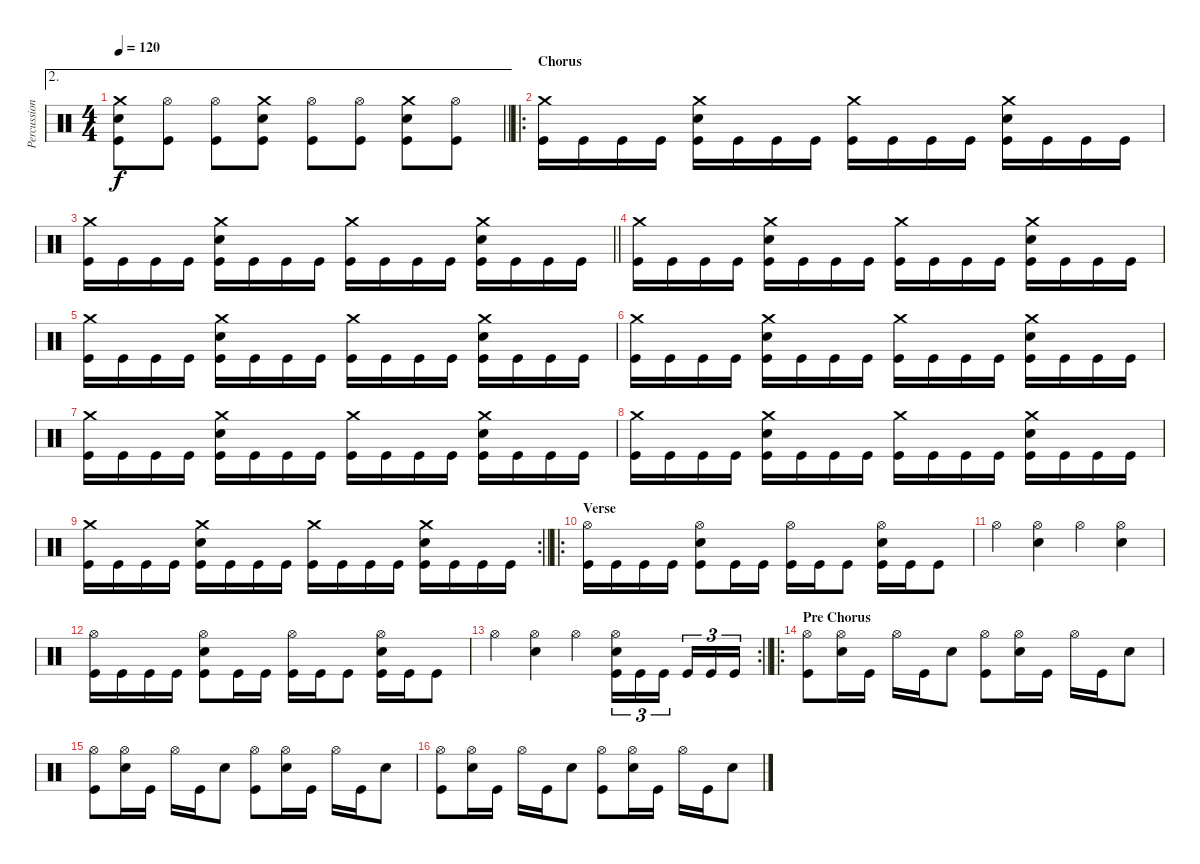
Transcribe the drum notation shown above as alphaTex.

\track ("Percussion" "Percussion") {instrument percussion}
\staff {score}
\articulation defaults
\ae 2
\ts (4 4)
\tempo 120
\clef neutral
\barLineRight lightlight
\ks c
("Crash medium (hit)" "Snare (hit) 2" "Kick (hit)").8{dy f} ("Hi-Hat (open)" "Kick (hit)").8 ("Hi-Hat (open)" "Kick (hit)").8 ("Crash medium (hit)" "Snare (hit) 2" "Kick (hit)").8 ("Hi-Hat (open)" "Kick (hit)").8 ("Hi-Hat (open)" "Kick (hit)").8 ("Crash medium (hit)" "Snare (hit) 2" "Kick (hit)").8 ("Hi-Hat (open)" "Kick (hit)").8 |
\ro
\section ("" "Chorus")
("Crash medium (hit)" "Kick (hit)").16 "Kick (hit)".16 "Kick (hit)".16 "Kick (hit)".16 ("Crash medium (hit)" "Snare (hit) 2" "Kick (hit)").16 "Kick (hit)".16 "Kick (hit)".16 "Kick (hit)".16 ("Crash medium (hit)" "Kick (hit)").16 "Kick (hit)".16 "Kick (hit)".16 "Kick (hit)".16 ("Crash medium (hit)" "Snare (hit) 2" "Kick (hit)").16 "Kick (hit)".16 "Kick (hit)".16 "Kick (hit)".16 |
\barLineRight lightlight
("Crash medium (hit)" "Kick (hit)").16 "Kick (hit)".16 "Kick (hit)".16 "Kick (hit)".16 ("Crash medium (hit)" "Snare (hit) 2" "Kick (hit)").16 "Kick (hit)".16 "Kick (hit)".16 "Kick (hit)".16 ("Crash medium (hit)" "Kick (hit)").16 "Kick (hit)".16 "Kick (hit)".16 "Kick (hit)".16 ("Crash medium (hit)" "Snare (hit) 2" "Kick (hit)").16 "Kick (hit)".16 "Kick (hit)".16 "Kick (hit)".16 |
("Crash medium (hit)" "Kick (hit)").16 "Kick (hit)".16 "Kick (hit)".16 "Kick (hit)".16 ("Crash medium (hit)" "Snare (hit) 2" "Kick (hit)").16 "Kick (hit)".16 "Kick (hit)".16 "Kick (hit)".16 ("Crash medium (hit)" "Kick (hit)").16 "Kick (hit)".16 "Kick (hit)".16 "Kick (hit)".16 ("Crash medium (hit)" "Snare (hit) 2" "Kick (hit)").16 "Kick (hit)".16 "Kick (hit)".16 "Kick (hit)".16 |
("Crash medium (hit)" "Kick (hit)").16 "Kick (hit)".16 "Kick (hit)".16 "Kick (hit)".16 ("Crash medium (hit)" "Snare (hit) 2" "Kick (hit)").16 "Kick (hit)".16 "Kick (hit)".16 "Kick (hit)".16 ("Crash medium (hit)" "Kick (hit)").16 "Kick (hit)".16 "Kick (hit)".16 "Kick (hit)".16 ("Crash medium (hit)" "Snare (hit) 2" "Kick (hit)").16 "Kick (hit)".16 "Kick (hit)".16 "Kick (hit)".16 |
("Crash medium (hit)" "Kick (hit)").16 "Kick (hit)".16 "Kick (hit)".16 "Kick (hit)".16 ("Crash medium (hit)" "Snare (hit) 2" "Kick (hit)").16 "Kick (hit)".16 "Kick (hit)".16 "Kick (hit)".16 ("Crash medium (hit)" "Kick (hit)").16 "Kick (hit)".16 "Kick (hit)".16 "Kick (hit)".16 ("Crash medium (hit)" "Snare (hit) 2" "Kick (hit)").16 "Kick (hit)".16 "Kick (hit)".16 "Kick (hit)".16 |
("Crash medium (hit)" "Kick (hit)").16 "Kick (hit)".16 "Kick (hit)".16 "Kick (hit)".16 ("Crash medium (hit)" "Snare (hit) 2" "Kick (hit)").16 "Kick (hit)".16 "Kick (hit)".16 "Kick (hit)".16 ("Crash medium (hit)" "Kick (hit)").16 "Kick (hit)".16 "Kick (hit)".16 "Kick (hit)".16 ("Crash medium (hit)" "Snare (hit) 2" "Kick (hit)").16 "Kick (hit)".16 "Kick (hit)".16 "Kick (hit)".16 |
("Crash medium (hit)" "Kick (hit)").16 "Kick (hit)".16 "Kick (hit)".16 "Kick (hit)".16 ("Crash medium (hit)" "Snare (hit) 2" "Kick (hit)").16 "Kick (hit)".16 "Kick (hit)".16 "Kick (hit)".16 ("Crash medium (hit)" "Kick (hit)").16 "Kick (hit)".16 "Kick (hit)".16 "Kick (hit)".16 ("Crash medium (hit)" "Snare (hit) 2" "Kick (hit)").16 "Kick (hit)".16 "Kick (hit)".16 "Kick (hit)".16 |
\rc 2
\barLineRight lightlight
("Crash medium (hit)" "Kick (hit)").16 "Kick (hit)".16 "Kick (hit)".16 "Kick (hit)".16 ("Crash medium (hit)" "Snare (hit) 2" "Kick (hit)").16 "Kick (hit)".16 "Kick (hit)".16 "Kick (hit)".16 ("Crash medium (hit)" "Kick (hit)").16 "Kick (hit)".16 "Kick (hit)".16 "Kick (hit)".16 ("Crash medium (hit)" "Snare (hit) 2" "Kick (hit)").16 "Kick (hit)".16 "Kick (hit)".16 "Kick (hit)".16 |
\ro
\section ("" "Verse")
("Hi-Hat (open)" "Kick (hit)").16 "Kick (hit)".16 "Kick (hit)".16 "Kick (hit)".16 ("Hi-Hat (open)" "Snare (hit) 2" "Kick (hit)").8 "Kick (hit)".16 "Kick (hit)".16 ("Hi-Hat (open)" "Kick (hit)").16 "Kick (hit)".16 "Kick (hit)".8 ("Hi-Hat (open)" "Snare (hit) 2" "Kick (hit)").16 "Kick (hit)".16 "Kick (hit)".8 |
"Hi-Hat (open)".4 ("Hi-Hat (open)" "Snare (hit) 2").4 "Hi-Hat (open)".4 ("Hi-Hat (open)" "Snare (hit) 2").4 |
("Hi-Hat (open)" "Kick (hit)").16 "Kick (hit)".16 "Kick (hit)".16 "Kick (hit)".16 ("Hi-Hat (open)" "Snare (hit) 2" "Kick (hit)").8 "Kick (hit)".16 "Kick (hit)".16 ("Hi-Hat (open)" "Kick (hit)").16 "Kick (hit)".16 "Kick (hit)".8 ("Hi-Hat (open)" "Snare (hit) 2" "Kick (hit)").16 "Kick (hit)".16 "Kick (hit)".8 |
\rc 2
\barLineRight lightlight "Hi-Hat (open)".4
("Hi-Hat (open)" "Snare (hit) 2").4 "Hi-Hat (open)".4 ("Hi-Hat (open)" "Snare (hit) 2" "Kick (hit)").16{tu (3 2)} "Kick (hit)".16{tu (3 2)} "Kick (hit)".16{tu (3 2) beam splitsecondary} "Kick (hit)".16{tu (3 2)} "Kick (hit)".16{tu (3 2)} "Kick (hit)".16{tu (3 2)} |
\ro
\section ("" "Pre Chorus")
("Hi-Hat (open)" "Kick (hit)").8 ("Hi-Hat (open)" "Snare (hit) 2").16 "Kick (hit)".16 "Hi-Hat (open)".16 "Kick (hit)".16 "Snare (hit) 2".8 ("Hi-Hat (open)" "Kick (hit)").8 ("Hi-Hat (open)" "Snare (hit) 2").16 "Kick (hit)".16 "Hi-Hat (open)".16 "Kick (hit)".16 "Snare (hit) 2".8 |
("Hi-Hat (open)" "Kick (hit)").8 ("Hi-Hat (open)" "Snare (hit) 2").16 "Kick (hit)".16 "Hi-Hat (open)".16 "Kick (hit)".16 "Snare (hit) 2".8 ("Hi-Hat (open)" "Kick (hit)").8 ("Hi-Hat (open)" "Snare (hit) 2").16 "Kick (hit)".16 "Hi-Hat (open)".16 "Kick (hit)".16 "Snare (hit) 2".8 |
("Hi-Hat (open)" "Kick (hit)").8 ("Hi-Hat (open)" "Snare (hit) 2").16 "Kick (hit)".16 "Hi-Hat (open)".16 "Kick (hit)".16 "Snare (hit) 2".8 ("Hi-Hat (open)" "Kick (hit)").8 ("Hi-Hat (open)" "Snare (hit) 2").16 "Kick (hit)".16 "Hi-Hat (open)".16 "Kick (hit)".16 "Snare (hit) 2".8
